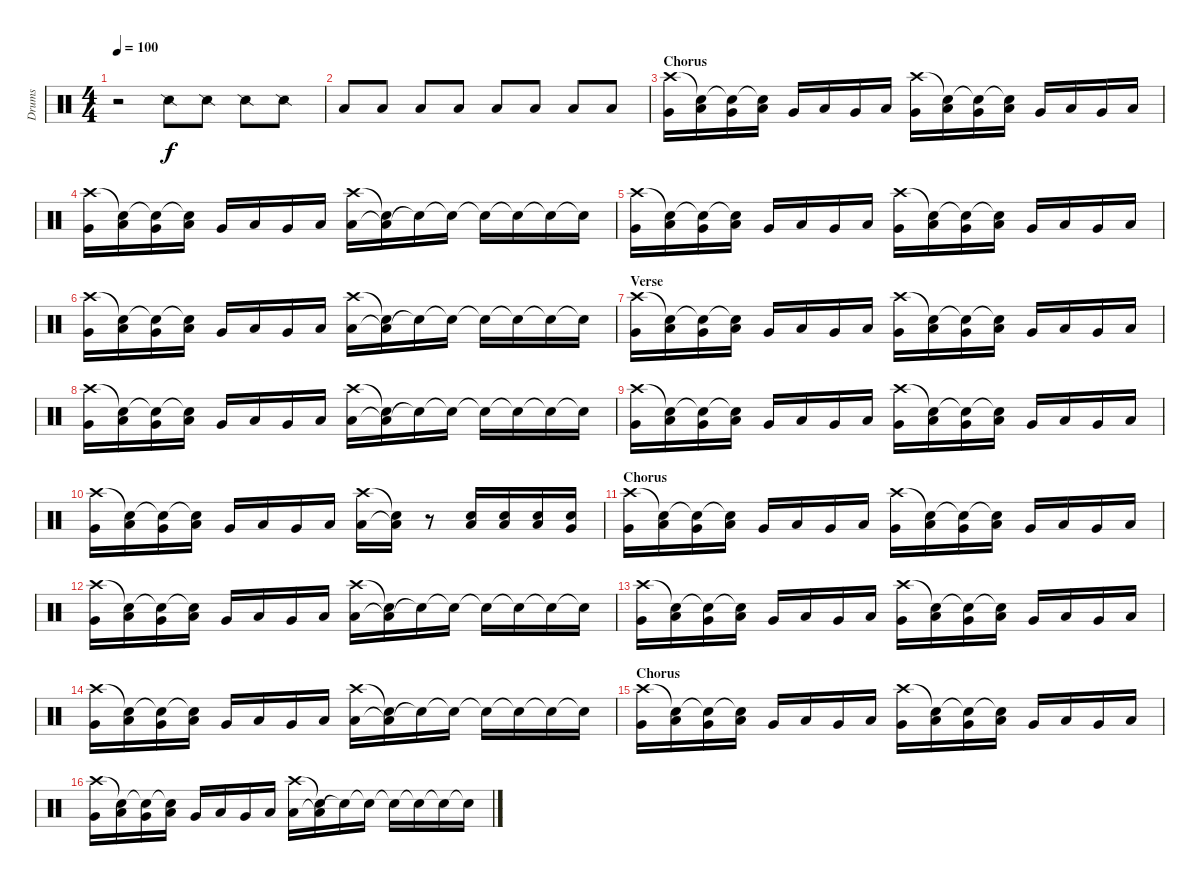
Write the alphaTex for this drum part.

\track ("Drums" "Drums") {instrument percussion}
\staff {score}
\articulation defaults
\ts (4 4)
\tempo 100
\clef neutral
\ks c
r.2{dy f} "Snare (side stick) 2".8 "Snare (side stick) 2".8 "Snare (side stick) 2".8 "Snare (side stick) 2".8 |
"Low Floor Tom (hit)".8 "Low Floor Tom (hit)".8 "Low Floor Tom (hit)".8 "Low Floor Tom (hit)".8 "Low Floor Tom (hit)".8 "Low Floor Tom (hit)".8 "Low Floor Tom (hit)".8 "Low Floor Tom (hit)".8 |
\section ("" "Chorus")
("Very Low Tom (hit)" "Crash high (hit)").16 ("Low Floor Tom (hit)" "Electric Snare (hit)"{t}).16 ("Very Low Tom (hit)" "Snare (hit)"{t}).16 ("Low Floor Tom (hit)" "Electric Snare (hit)"{t}).16 "Very Low Tom (hit)".16 "Low Floor Tom (hit)".16 "Very Low Tom (hit)".16 "Low Floor Tom (hit)".16 ("Very Low Tom (hit)" "Crash high (hit)").16 ("Low Floor Tom (hit)" "Electric Snare (hit)"{t}).16 ("Very Low Tom (hit)" "Snare (hit)"{t}).16 ("Low Floor Tom (hit)" "Electric Snare (hit)"{t}).16 "Very Low Tom (hit)".16 "Low Floor Tom (hit)".16 "Very Low Tom (hit)".16 "Low Floor Tom (hit)".16 |
("Very Low Tom (hit)" "Crash high (hit)").16 ("Low Floor Tom (hit)" "Electric Snare (hit)"{t}).16 ("Very Low Tom (hit)" "Snare (hit)"{t}).16 ("Low Floor Tom (hit)" "Electric Snare (hit)"{t}).16 "Very Low Tom (hit)".16 "Low Floor Tom (hit)".16 "Very Low Tom (hit)".16 "Low Floor Tom (hit)".16 ("Low Floor Tom (hit)" "Crash high (hit)").16 ("Low Floor Tom (hit)"{t} "Electric Snare (hit)"{t}).16 "Snare (hit)"{t}.16 "Electric Snare (hit)"{t}.16 "Snare (hit)"{t}.16 "Snare (hit)"{t}.16 "Snare (hit)"{t}.16 "Snare (hit)"{t}.16 |
("Very Low Tom (hit)" "Crash high (hit)").16 ("Low Floor Tom (hit)" "Electric Snare (hit)"{t}).16 ("Very Low Tom (hit)" "Snare (hit)"{t}).16 ("Low Floor Tom (hit)" "Electric Snare (hit)"{t}).16 "Very Low Tom (hit)".16 "Low Floor Tom (hit)".16 "Very Low Tom (hit)".16 "Low Floor Tom (hit)".16 ("Very Low Tom (hit)" "Crash high (hit)").16 ("Low Floor Tom (hit)" "Electric Snare (hit)"{t}).16 ("Very Low Tom (hit)" "Snare (hit)"{t}).16 ("Low Floor Tom (hit)" "Electric Snare (hit)"{t}).16 "Very Low Tom (hit)".16 "Low Floor Tom (hit)".16 "Very Low Tom (hit)".16 "Low Floor Tom (hit)".16 |
("Very Low Tom (hit)" "Crash high (hit)").16 ("Low Floor Tom (hit)" "Electric Snare (hit)"{t}).16 ("Very Low Tom (hit)" "Snare (hit)"{t}).16 ("Low Floor Tom (hit)" "Electric Snare (hit)"{t}).16 "Very Low Tom (hit)".16 "Low Floor Tom (hit)".16 "Very Low Tom (hit)".16 "Low Floor Tom (hit)".16 ("Low Floor Tom (hit)" "Crash high (hit)").16 ("Low Floor Tom (hit)"{t} "Electric Snare (hit)"{t}).16 "Snare (hit)"{t}.16 "Electric Snare (hit)"{t}.16 "Snare (hit)"{t}.16 "Snare (hit)"{t}.16 "Snare (hit)"{t}.16 "Snare (hit)"{t}.16 |
\section ("" "Verse")
("Very Low Tom (hit)" "Crash high (hit)").16 ("Low Floor Tom (hit)" "Electric Snare (hit)"{t}).16 ("Very Low Tom (hit)" "Snare (hit)"{t}).16 ("Low Floor Tom (hit)" "Electric Snare (hit)"{t}).16 "Very Low Tom (hit)".16 "Low Floor Tom (hit)".16 "Very Low Tom (hit)".16 "Low Floor Tom (hit)".16 ("Very Low Tom (hit)" "Crash high (hit)").16 ("Low Floor Tom (hit)" "Electric Snare (hit)"{t}).16 ("Very Low Tom (hit)" "Snare (hit)"{t}).16 ("Low Floor Tom (hit)" "Electric Snare (hit)"{t}).16 "Very Low Tom (hit)".16 "Low Floor Tom (hit)".16 "Very Low Tom (hit)".16 "Low Floor Tom (hit)".16 |
("Very Low Tom (hit)" "Crash high (hit)").16 ("Low Floor Tom (hit)" "Electric Snare (hit)"{t}).16 ("Very Low Tom (hit)" "Snare (hit)"{t}).16 ("Low Floor Tom (hit)" "Electric Snare (hit)"{t}).16 "Very Low Tom (hit)".16 "Low Floor Tom (hit)".16 "Very Low Tom (hit)".16 "Low Floor Tom (hit)".16 ("Low Floor Tom (hit)" "Crash high (hit)").16 ("Low Floor Tom (hit)"{t} "Electric Snare (hit)"{t}).16 "Snare (hit)"{t}.16 "Electric Snare (hit)"{t}.16 "Snare (hit)"{t}.16 "Snare (hit)"{t}.16 "Snare (hit)"{t}.16 "Snare (hit)"{t}.16 |
("Very Low Tom (hit)" "Crash high (hit)").16 ("Low Floor Tom (hit)" "Electric Snare (hit)"{t}).16 ("Very Low Tom (hit)" "Snare (hit)"{t}).16 ("Low Floor Tom (hit)" "Electric Snare (hit)"{t}).16 "Very Low Tom (hit)".16 "Low Floor Tom (hit)".16 "Very Low Tom (hit)".16 "Low Floor Tom (hit)".16 ("Very Low Tom (hit)" "Crash high (hit)").16 ("Low Floor Tom (hit)" "Electric Snare (hit)"{t}).16 ("Very Low Tom (hit)" "Snare (hit)"{t}).16 ("Low Floor Tom (hit)" "Electric Snare (hit)"{t}).16 "Very Low Tom (hit)".16 "Low Floor Tom (hit)".16 "Very Low Tom (hit)".16 "Low Floor Tom (hit)".16 |
("Very Low Tom (hit)" "Crash high (hit)").16 ("Low Floor Tom (hit)" "Electric Snare (hit)"{t}).16 ("Very Low Tom (hit)" "Snare (hit)"{t}).16 ("Low Floor Tom (hit)" "Electric Snare (hit)"{t}).16 "Very Low Tom (hit)".16 "Low Floor Tom (hit)".16 "Very Low Tom (hit)".16 "Low Floor Tom (hit)".16 ("Low Floor Tom (hit)" "Crash high (hit)").16 ("Low Floor Tom (hit)"{t} "Electric Snare (hit)"{t}).16 r.8 ("Low Floor Tom (hit)" "Electric Snare (hit)").16 ("Low Floor Tom (hit)" "Electric Snare (hit)").16 ("Low Floor Tom (hit)" "Electric Snare (hit)").16 ("Very Low Tom (hit)" "Electric Snare (hit)").16 |
\section ("" "Chorus")
("Very Low Tom (hit)" "Crash high (hit)").16 ("Low Floor Tom (hit)" "Electric Snare (hit)"{t}).16 ("Very Low Tom (hit)" "Snare (hit)"{t}).16 ("Low Floor Tom (hit)" "Electric Snare (hit)"{t}).16 "Very Low Tom (hit)".16 "Low Floor Tom (hit)".16 "Very Low Tom (hit)".16 "Low Floor Tom (hit)".16 ("Very Low Tom (hit)" "Crash high (hit)").16 ("Low Floor Tom (hit)" "Electric Snare (hit)"{t}).16 ("Very Low Tom (hit)" "Snare (hit)"{t}).16 ("Low Floor Tom (hit)" "Electric Snare (hit)"{t}).16 "Very Low Tom (hit)".16 "Low Floor Tom (hit)".16 "Very Low Tom (hit)".16 "Low Floor Tom (hit)".16 |
("Very Low Tom (hit)" "Crash high (hit)").16 ("Low Floor Tom (hit)" "Electric Snare (hit)"{t}).16 ("Very Low Tom (hit)" "Snare (hit)"{t}).16 ("Low Floor Tom (hit)" "Electric Snare (hit)"{t}).16 "Very Low Tom (hit)".16 "Low Floor Tom (hit)".16 "Very Low Tom (hit)".16 "Low Floor Tom (hit)".16 ("Low Floor Tom (hit)" "Crash high (hit)").16 ("Low Floor Tom (hit)"{t} "Electric Snare (hit)"{t}).16 "Snare (hit)"{t}.16 "Electric Snare (hit)"{t}.16 "Snare (hit)"{t}.16 "Snare (hit)"{t}.16 "Snare (hit)"{t}.16 "Snare (hit)"{t}.16 |
("Very Low Tom (hit)" "Crash high (hit)").16 ("Low Floor Tom (hit)" "Electric Snare (hit)"{t}).16 ("Very Low Tom (hit)" "Snare (hit)"{t}).16 ("Low Floor Tom (hit)" "Electric Snare (hit)"{t}).16 "Very Low Tom (hit)".16 "Low Floor Tom (hit)".16 "Very Low Tom (hit)".16 "Low Floor Tom (hit)".16 ("Very Low Tom (hit)" "Crash high (hit)").16 ("Low Floor Tom (hit)" "Electric Snare (hit)"{t}).16 ("Very Low Tom (hit)" "Snare (hit)"{t}).16 ("Low Floor Tom (hit)" "Electric Snare (hit)"{t}).16 "Very Low Tom (hit)".16 "Low Floor Tom (hit)".16 "Very Low Tom (hit)".16 "Low Floor Tom (hit)".16 |
("Very Low Tom (hit)" "Crash high (hit)").16 ("Low Floor Tom (hit)" "Electric Snare (hit)"{t}).16 ("Very Low Tom (hit)" "Snare (hit)"{t}).16 ("Low Floor Tom (hit)" "Electric Snare (hit)"{t}).16 "Very Low Tom (hit)".16 "Low Floor Tom (hit)".16 "Very Low Tom (hit)".16 "Low Floor Tom (hit)".16 ("Low Floor Tom (hit)" "Crash high (hit)").16 ("Low Floor Tom (hit)"{t} "Electric Snare (hit)"{t}).16 "Snare (hit)"{t}.16 "Electric Snare (hit)"{t}.16 "Snare (hit)"{t}.16 "Snare (hit)"{t}.16 "Snare (hit)"{t}.16 "Snare (hit)"{t}.16 |
\section ("" "Chorus")
("Very Low Tom (hit)" "Crash high (hit)").16 ("Low Floor Tom (hit)" "Electric Snare (hit)"{t}).16 ("Very Low Tom (hit)" "Snare (hit)"{t}).16 ("Low Floor Tom (hit)" "Electric Snare (hit)"{t}).16 "Very Low Tom (hit)".16 "Low Floor Tom (hit)".16 "Very Low Tom (hit)".16 "Low Floor Tom (hit)".16 ("Very Low Tom (hit)" "Crash high (hit)").16 ("Low Floor Tom (hit)" "Electric Snare (hit)"{t}).16 ("Very Low Tom (hit)" "Snare (hit)"{t}).16 ("Low Floor Tom (hit)" "Electric Snare (hit)"{t}).16 "Very Low Tom (hit)".16 "Low Floor Tom (hit)".16 "Very Low Tom (hit)".16 "Low Floor Tom (hit)".16 |
("Very Low Tom (hit)" "Crash high (hit)").16 ("Low Floor Tom (hit)" "Electric Snare (hit)"{t}).16 ("Very Low Tom (hit)" "Snare (hit)"{t}).16 ("Low Floor Tom (hit)" "Electric Snare (hit)"{t}).16 "Very Low Tom (hit)".16 "Low Floor Tom (hit)".16 "Very Low Tom (hit)".16 "Low Floor Tom (hit)".16 ("Low Floor Tom (hit)" "Crash high (hit)").16 ("Low Floor Tom (hit)"{t} "Electric Snare (hit)"{t}).16 "Snare (hit)"{t}.16 "Electric Snare (hit)"{t}.16 "Snare (hit)"{t}.16 "Snare (hit)"{t}.16 "Snare (hit)"{t}.16 "Snare (hit)"{t}.16
